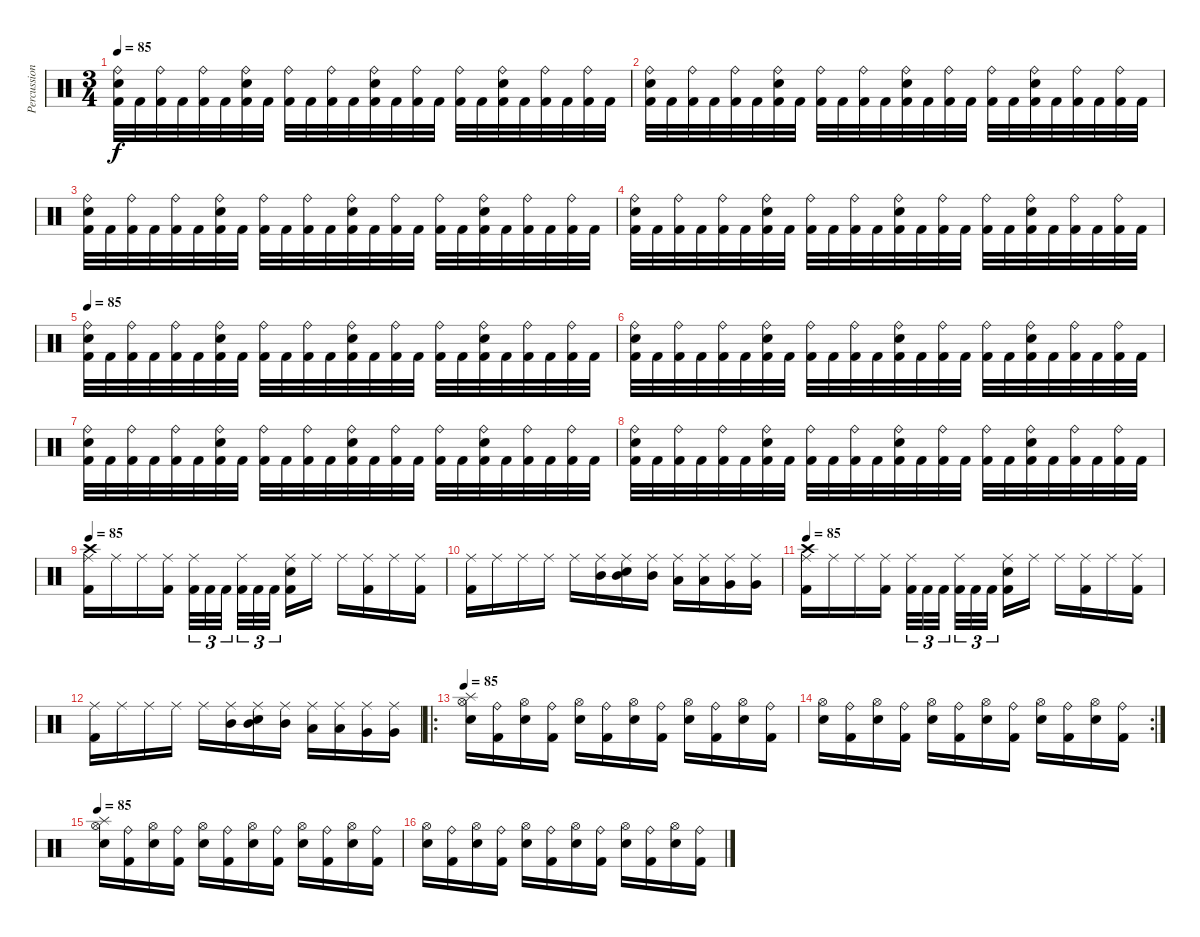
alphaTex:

\track ("Percussion" "Percussion") {instrument percussion}
\staff {score}
\articulation defaults
\ts (3 4)
\tempo 85
\clef neutral
\ks c
("Kick (hit) 2" "Snare (hit) 2" "Ride (bell)").32{dy f volume 15} "Kick (hit) 2".32 ("Kick (hit) 2" "Ride (bell)").32 "Kick (hit) 2".32 ("Kick (hit) 2" "Ride (bell)").32 "Kick (hit) 2".32 ("Kick (hit) 2" "Snare (hit) 2" "Ride (bell)").32 "Kick (hit) 2".32 ("Kick (hit) 2" "Ride (bell)").32 "Kick (hit) 2".32 ("Kick (hit) 2" "Ride (bell)").32 "Kick (hit) 2".32 ("Kick (hit) 2" "Snare (hit) 2" "Ride (bell)").32 "Kick (hit) 2".32 ("Kick (hit) 2" "Ride (bell)").32 "Kick (hit) 2".32 ("Kick (hit) 2" "Ride (bell)").32 "Kick (hit) 2".32 ("Kick (hit) 2" "Snare (hit) 2" "Ride (bell)").32 "Kick (hit) 2".32 ("Kick (hit) 2" "Ride (bell)").32 "Kick (hit) 2".32 ("Kick (hit) 2" "Ride (bell)").32 "Kick (hit) 2".32 |
("Kick (hit) 2" "Snare (hit) 2" "Ride (bell)").32 "Kick (hit) 2".32 ("Kick (hit) 2" "Ride (bell)").32 "Kick (hit) 2".32 ("Kick (hit) 2" "Ride (bell)").32 "Kick (hit) 2".32 ("Kick (hit) 2" "Snare (hit) 2" "Ride (bell)").32 "Kick (hit) 2".32 ("Kick (hit) 2" "Ride (bell)").32 "Kick (hit) 2".32 ("Kick (hit) 2" "Ride (bell)").32 "Kick (hit) 2".32 ("Kick (hit) 2" "Snare (hit) 2" "Ride (bell)").32 "Kick (hit) 2".32 ("Kick (hit) 2" "Ride (bell)").32 "Kick (hit) 2".32 ("Kick (hit) 2" "Ride (bell)").32 "Kick (hit) 2".32 ("Kick (hit) 2" "Snare (hit) 2" "Ride (bell)").32 "Kick (hit) 2".32 ("Kick (hit) 2" "Ride (bell)").32 "Kick (hit) 2".32 ("Kick (hit) 2" "Ride (bell)").32 "Kick (hit) 2".32 |
("Kick (hit) 2" "Snare (hit) 2" "Ride (bell)").32 "Kick (hit) 2".32 ("Kick (hit) 2" "Ride (bell)").32 "Kick (hit) 2".32 ("Kick (hit) 2" "Ride (bell)").32 "Kick (hit) 2".32 ("Kick (hit) 2" "Snare (hit) 2" "Ride (bell)").32 "Kick (hit) 2".32 ("Kick (hit) 2" "Ride (bell)").32 "Kick (hit) 2".32 ("Kick (hit) 2" "Ride (bell)").32 "Kick (hit) 2".32 ("Kick (hit) 2" "Snare (hit) 2" "Ride (bell)").32 "Kick (hit) 2".32 ("Kick (hit) 2" "Ride (bell)").32 "Kick (hit) 2".32 ("Kick (hit) 2" "Ride (bell)").32 "Kick (hit) 2".32 ("Kick (hit) 2" "Snare (hit) 2" "Ride (bell)").32 "Kick (hit) 2".32 ("Kick (hit) 2" "Ride (bell)").32 "Kick (hit) 2".32 ("Kick (hit) 2" "Ride (bell)").32 "Kick (hit) 2".32 |
("Kick (hit) 2" "Snare (hit) 2" "Ride (bell)").32 "Kick (hit) 2".32 ("Kick (hit) 2" "Ride (bell)").32 "Kick (hit) 2".32 ("Kick (hit) 2" "Ride (bell)").32 "Kick (hit) 2".32 ("Kick (hit) 2" "Snare (hit) 2" "Ride (bell)").32 "Kick (hit) 2".32 ("Kick (hit) 2" "Ride (bell)").32 "Kick (hit) 2".32 ("Kick (hit) 2" "Ride (bell)").32 "Kick (hit) 2".32 ("Kick (hit) 2" "Snare (hit) 2" "Ride (bell)").32 "Kick (hit) 2".32 ("Kick (hit) 2" "Ride (bell)").32 "Kick (hit) 2".32 ("Kick (hit) 2" "Ride (bell)").32 "Kick (hit) 2".32 ("Kick (hit) 2" "Snare (hit) 2" "Ride (bell)").32 "Kick (hit) 2".32 ("Kick (hit) 2" "Ride (bell)").32 "Kick (hit) 2".32 ("Kick (hit) 2" "Ride (bell)").32 "Kick (hit) 2".32 |
\tempo 85
("Kick (hit) 2" "Snare (hit) 2" "Ride (bell)").32{volume 15} "Kick (hit) 2".32 ("Kick (hit) 2" "Ride (bell)").32 "Kick (hit) 2".32 ("Kick (hit) 2" "Ride (bell)").32 "Kick (hit) 2".32 ("Kick (hit) 2" "Snare (hit) 2" "Ride (bell)").32 "Kick (hit) 2".32 ("Kick (hit) 2" "Ride (bell)").32 "Kick (hit) 2".32 ("Kick (hit) 2" "Ride (bell)").32 "Kick (hit) 2".32 ("Kick (hit) 2" "Snare (hit) 2" "Ride (bell)").32 "Kick (hit) 2".32 ("Kick (hit) 2" "Ride (bell)").32 "Kick (hit) 2".32 ("Kick (hit) 2" "Ride (bell)").32 "Kick (hit) 2".32 ("Kick (hit) 2" "Snare (hit) 2" "Ride (bell)").32 "Kick (hit) 2".32 ("Kick (hit) 2" "Ride (bell)").32 "Kick (hit) 2".32 ("Kick (hit) 2" "Ride (bell)").32 "Kick (hit) 2".32 |
("Kick (hit) 2" "Snare (hit) 2" "Ride (bell)").32 "Kick (hit) 2".32 ("Kick (hit) 2" "Ride (bell)").32 "Kick (hit) 2".32 ("Kick (hit) 2" "Ride (bell)").32 "Kick (hit) 2".32 ("Kick (hit) 2" "Snare (hit) 2" "Ride (bell)").32 "Kick (hit) 2".32 ("Kick (hit) 2" "Ride (bell)").32 "Kick (hit) 2".32 ("Kick (hit) 2" "Ride (bell)").32 "Kick (hit) 2".32 ("Kick (hit) 2" "Snare (hit) 2" "Ride (bell)").32 "Kick (hit) 2".32 ("Kick (hit) 2" "Ride (bell)").32 "Kick (hit) 2".32 ("Kick (hit) 2" "Ride (bell)").32 "Kick (hit) 2".32 ("Kick (hit) 2" "Snare (hit) 2" "Ride (bell)").32 "Kick (hit) 2".32 ("Kick (hit) 2" "Ride (bell)").32 "Kick (hit) 2".32 ("Kick (hit) 2" "Ride (bell)").32 "Kick (hit) 2".32 |
("Kick (hit) 2" "Snare (hit) 2" "Ride (bell)").32 "Kick (hit) 2".32 ("Kick (hit) 2" "Ride (bell)").32 "Kick (hit) 2".32 ("Kick (hit) 2" "Ride (bell)").32 "Kick (hit) 2".32 ("Kick (hit) 2" "Snare (hit) 2" "Ride (bell)").32 "Kick (hit) 2".32 ("Kick (hit) 2" "Ride (bell)").32 "Kick (hit) 2".32 ("Kick (hit) 2" "Ride (bell)").32 "Kick (hit) 2".32 ("Kick (hit) 2" "Snare (hit) 2" "Ride (bell)").32 "Kick (hit) 2".32 ("Kick (hit) 2" "Ride (bell)").32 "Kick (hit) 2".32 ("Kick (hit) 2" "Ride (bell)").32 "Kick (hit) 2".32 ("Kick (hit) 2" "Snare (hit) 2" "Ride (bell)").32 "Kick (hit) 2".32 ("Kick (hit) 2" "Ride (bell)").32 "Kick (hit) 2".32 ("Kick (hit) 2" "Ride (bell)").32 "Kick (hit) 2".32 |
("Kick (hit) 2" "Snare (hit) 2" "Ride (bell)").32 "Kick (hit) 2".32 ("Kick (hit) 2" "Ride (bell)").32 "Kick (hit) 2".32 ("Kick (hit) 2" "Ride (bell)").32 "Kick (hit) 2".32 ("Kick (hit) 2" "Snare (hit) 2" "Ride (bell)").32 "Kick (hit) 2".32 ("Kick (hit) 2" "Ride (bell)").32 "Kick (hit) 2".32 ("Kick (hit) 2" "Ride (bell)").32 "Kick (hit) 2".32 ("Kick (hit) 2" "Snare (hit) 2" "Ride (bell)").32 "Kick (hit) 2".32 ("Kick (hit) 2" "Ride (bell)").32 "Kick (hit) 2".32 ("Kick (hit) 2" "Ride (bell)").32 "Kick (hit) 2".32 ("Kick (hit) 2" "Snare (hit) 2" "Ride (bell)").32 "Kick (hit) 2".32 ("Kick (hit) 2" "Ride (bell)").32 "Kick (hit) 2".32 ("Kick (hit) 2" "Ride (bell)").32 "Kick (hit) 2".32 |
\tempo 85
("Kick (hit) 2" "Crash high (hit)" "Ride (middle)").16 "Ride (middle)".16 "Ride (middle)".16 ("Kick (hit) 2" "Ride (middle)").16 ("Kick (hit) 2" "Ride (middle)").32{tu (3 2)} "Kick (hit) 2".32{tu (3 2)} "Kick (hit) 2".32{tu (3 2)} ("Kick (hit) 2" "Ride (middle)").32{tu (3 2)} "Kick (hit) 2".32{tu (3 2)} "Kick (hit) 2".32{tu (3 2)} ("Kick (hit) 2" "Snare (hit) 2" "Ride (middle)").16 "Ride (middle)".16 "Ride (middle)".16 ("Kick (hit) 2" "Ride (middle)").16 "Ride (middle)".16 ("Kick (hit) 2" "Ride (middle)").16 |
("Kick (hit) 2" "Ride (middle)").16 "Ride (middle)".16 "Ride (middle)".16 "Ride (middle)".16 "Ride (middle)".16 ("Mid Tom (hit)" "Ride (middle)").16 ("Mid Tom (hit)" "Snare (hit) 2" "Ride (middle)").16 ("Mid Tom (hit)" "Ride (middle)").16 ("Low Tom (hit)" "Ride (middle)").16 ("Low Tom (hit)" "Ride (middle)").16 ("Very Low Tom (hit)" "Ride (middle)").16 ("Very Low Tom (hit)" "Ride (middle)").16 |
\tempo 85
("Kick (hit) 2" "Crash high (hit)" "Ride (middle)").16 "Ride (middle)".16 "Ride (middle)".16 ("Kick (hit) 2" "Ride (middle)").16 ("Kick (hit) 2" "Ride (middle)").32{tu (3 2)} "Kick (hit) 2".32{tu (3 2)} "Kick (hit) 2".32{tu (3 2)} ("Kick (hit) 2" "Ride (middle)").32{tu (3 2)} "Kick (hit) 2".32{tu (3 2)} "Kick (hit) 2".32{tu (3 2)} ("Kick (hit) 2" "Snare (hit) 2" "Ride (middle)").16 "Ride (middle)".16 "Ride (middle)".16 ("Kick (hit) 2" "Ride (middle)").16 "Ride (middle)".16 ("Kick (hit) 2" "Ride (middle)").16 |
("Kick (hit) 2" "Ride (middle)").16 "Ride (middle)".16 "Ride (middle)".16 "Ride (middle)".16 "Ride (middle)".16 ("Mid Tom (hit)" "Ride (middle)").16 ("Mid Tom (hit)" "Snare (hit) 2" "Ride (middle)").16 ("Mid Tom (hit)" "Ride (middle)").16 ("Low Tom (hit)" "Ride (middle)").16 ("Low Tom (hit)" "Ride (middle)").16 ("Very Low Tom (hit)" "Ride (middle)").16 ("Very Low Tom (hit)" "Ride (middle)").16 |
\ro
\tempo 85
("Snare (hit) 2" "Hi-Hat (open)" "Splash (hit)").16 ("Kick (hit) 2" "Ride (bell)").16 ("Snare (hit) 2" "Hi-Hat (open)").16 ("Kick (hit) 2" "Ride (bell)").16 ("Snare (hit) 2" "Hi-Hat (open)").16 ("Kick (hit) 2" "Ride (bell)").16 ("Snare (hit) 2" "Hi-Hat (open)").16 ("Kick (hit) 2" "Ride (bell)").16 ("Snare (hit) 2" "Hi-Hat (open)").16 ("Kick (hit) 2" "Ride (bell)").16 ("Snare (hit) 2" "Hi-Hat (open)").16 ("Kick (hit) 2" "Ride (bell)").16 |
\rc 2
("Snare (hit) 2" "Hi-Hat (open)").16 ("Kick (hit) 2" "Ride (bell)").16 ("Snare (hit) 2" "Hi-Hat (open)").16 ("Kick (hit) 2" "Ride (bell)").16 ("Snare (hit) 2" "Hi-Hat (open)").16 ("Kick (hit) 2" "Ride (bell)").16 ("Snare (hit) 2" "Hi-Hat (open)").16 ("Kick (hit) 2" "Ride (bell)").16 ("Snare (hit) 2" "Hi-Hat (open)").16 ("Kick (hit) 2" "Ride (bell)").16 ("Snare (hit) 2" "Hi-Hat (open)").16 ("Kick (hit) 2" "Ride (bell)").16 |
\tempo 85
("Snare (hit) 2" "Hi-Hat (open)" "Splash (hit)").16 ("Kick (hit) 2" "Ride (bell)").16 ("Snare (hit) 2" "Hi-Hat (open)").16 ("Kick (hit) 2" "Ride (bell)").16 ("Snare (hit) 2" "Hi-Hat (open)").16 ("Kick (hit) 2" "Ride (bell)").16 ("Snare (hit) 2" "Hi-Hat (open)").16 ("Kick (hit) 2" "Ride (bell)").16 ("Snare (hit) 2" "Hi-Hat (open)").16 ("Kick (hit) 2" "Ride (bell)").16 ("Snare (hit) 2" "Hi-Hat (open)").16 ("Kick (hit) 2" "Ride (bell)").16 |
("Snare (hit) 2" "Hi-Hat (open)").16 ("Kick (hit) 2" "Ride (bell)").16 ("Snare (hit) 2" "Hi-Hat (open)").16 ("Kick (hit) 2" "Ride (bell)").16 ("Snare (hit) 2" "Hi-Hat (open)").16 ("Kick (hit) 2" "Ride (bell)").16 ("Snare (hit) 2" "Hi-Hat (open)").16 ("Kick (hit) 2" "Ride (bell)").16 ("Snare (hit) 2" "Hi-Hat (open)").16 ("Kick (hit) 2" "Ride (bell)").16 ("Snare (hit) 2" "Hi-Hat (open)").16 ("Kick (hit) 2" "Ride (bell)").16
